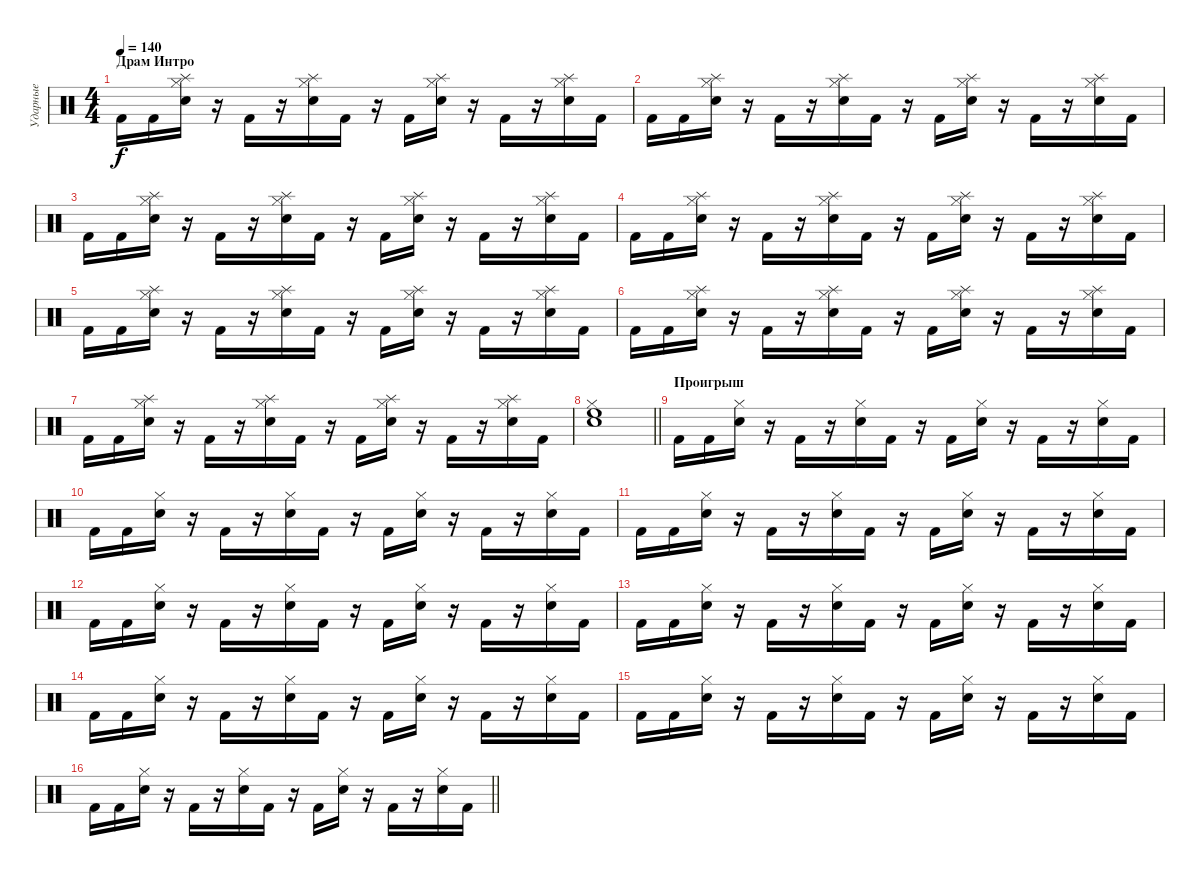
\track ("Ударные" "Ударные") {instrument percussion}
\staff {score}
\articulation defaults
\ts (4 4)
\section ("" "Драм Интро")
\tempo 140
\clef neutral
\ks c "Kick (hit) 2".16{dy f volume 14} "Kick (hit) 2".16
("Snare (hit) 2" "Hi-Hat (closed)" "Splash (hit)").16 r.16 "Kick (hit) 2".16 r.16 ("Snare (hit) 2" "Hi-Hat (closed)" "Splash (hit)").16 "Kick (hit) 2".16 r.16 "Kick (hit) 2".16 ("Snare (hit) 2" "Hi-Hat (closed)" "Splash (hit)").16 r.16 "Kick (hit) 2".16 r.16 ("Snare (hit) 2" "Hi-Hat (closed)" "Splash (hit)").16 "Kick (hit) 2".16 |
"Kick (hit) 2".16{volume 14} "Kick (hit) 2".16 ("Snare (hit) 2" "Hi-Hat (closed)" "Splash (hit)").16 r.16 "Kick (hit) 2".16 r.16 ("Snare (hit) 2" "Hi-Hat (closed)" "Splash (hit)").16 "Kick (hit) 2".16 r.16 "Kick (hit) 2".16 ("Snare (hit) 2" "Hi-Hat (closed)" "Splash (hit)").16 r.16 "Kick (hit) 2".16 r.16 ("Snare (hit) 2" "Hi-Hat (closed)" "Splash (hit)").16 "Kick (hit) 2".16 |
"Kick (hit) 2".16{volume 14} "Kick (hit) 2".16 ("Snare (hit) 2" "Hi-Hat (closed)" "Splash (hit)").16 r.16 "Kick (hit) 2".16 r.16 ("Snare (hit) 2" "Hi-Hat (closed)" "Splash (hit)").16 "Kick (hit) 2".16 r.16 "Kick (hit) 2".16 ("Snare (hit) 2" "Hi-Hat (closed)" "Splash (hit)").16 r.16 "Kick (hit) 2".16 r.16 ("Snare (hit) 2" "Hi-Hat (closed)" "Splash (hit)").16 "Kick (hit) 2".16 |
"Kick (hit) 2".16{volume 14} "Kick (hit) 2".16 ("Snare (hit) 2" "Hi-Hat (closed)" "Splash (hit)").16 r.16 "Kick (hit) 2".16 r.16 ("Snare (hit) 2" "Hi-Hat (closed)" "Splash (hit)").16 "Kick (hit) 2".16 r.16 "Kick (hit) 2".16 ("Snare (hit) 2" "Hi-Hat (closed)" "Splash (hit)").16 r.16 "Kick (hit) 2".16 r.16 ("Snare (hit) 2" "Hi-Hat (closed)" "Splash (hit)").16 "Kick (hit) 2".16 |
"Kick (hit) 2".16{volume 14} "Kick (hit) 2".16 ("Snare (hit) 2" "Hi-Hat (closed)" "Splash (hit)").16 r.16 "Kick (hit) 2".16 r.16 ("Snare (hit) 2" "Hi-Hat (closed)" "Splash (hit)").16 "Kick (hit) 2".16 r.16 "Kick (hit) 2".16 ("Snare (hit) 2" "Hi-Hat (closed)" "Splash (hit)").16 r.16 "Kick (hit) 2".16 r.16 ("Snare (hit) 2" "Hi-Hat (closed)" "Splash (hit)").16 "Kick (hit) 2".16 |
"Kick (hit) 2".16{volume 14} "Kick (hit) 2".16 ("Snare (hit) 2" "Hi-Hat (closed)" "Splash (hit)").16 r.16 "Kick (hit) 2".16 r.16 ("Snare (hit) 2" "Hi-Hat (closed)" "Splash (hit)").16 "Kick (hit) 2".16 r.16 "Kick (hit) 2".16 ("Snare (hit) 2" "Hi-Hat (closed)" "Splash (hit)").16 r.16 "Kick (hit) 2".16 r.16 ("Snare (hit) 2" "Hi-Hat (closed)" "Splash (hit)").16 "Kick (hit) 2".16 |
"Kick (hit) 2".16{volume 14} "Kick (hit) 2".16 ("Snare (hit) 2" "Hi-Hat (closed)" "Splash (hit)").16 r.16 "Kick (hit) 2".16 r.16 ("Snare (hit) 2" "Hi-Hat (closed)" "Splash (hit)").16 "Kick (hit) 2".16 r.16 "Kick (hit) 2".16 ("Snare (hit) 2" "Hi-Hat (closed)" "Splash (hit)").16 r.16 "Kick (hit) 2".16 r.16 ("Snare (hit) 2" "Hi-Hat (closed)" "Splash (hit)").16 "Kick (hit) 2".16 |
\barLineRight lightlight
("High Floor Tom (hit)" "Snare (hit) 2" "Hi-Hat (closed)").1 |
\section ("" "Проигрыш")
"Kick (hit) 2".16{volume 16} "Kick (hit) 2".16 ("Snare (hit) 2" "Hi-Hat (closed)").16 r.16 "Kick (hit) 2".16 r.16 ("Snare (hit) 2" "Hi-Hat (closed)").16 "Kick (hit) 2".16 r.16 "Kick (hit) 2".16 ("Snare (hit) 2" "Hi-Hat (closed)").16 r.16 "Kick (hit) 2".16 r.16 ("Snare (hit) 2" "Hi-Hat (closed)").16 "Kick (hit) 2".16 |
"Kick (hit) 2".16 "Kick (hit) 2".16 ("Snare (hit) 2" "Hi-Hat (closed)").16 r.16 "Kick (hit) 2".16 r.16 ("Snare (hit) 2" "Hi-Hat (closed)").16 "Kick (hit) 2".16 r.16 "Kick (hit) 2".16 ("Snare (hit) 2" "Hi-Hat (closed)").16 r.16 "Kick (hit) 2".16 r.16 ("Snare (hit) 2" "Hi-Hat (closed)").16 "Kick (hit) 2".16 |
"Kick (hit) 2".16 "Kick (hit) 2".16 ("Snare (hit) 2" "Hi-Hat (closed)").16 r.16 "Kick (hit) 2".16 r.16 ("Snare (hit) 2" "Hi-Hat (closed)").16 "Kick (hit) 2".16 r.16 "Kick (hit) 2".16 ("Snare (hit) 2" "Hi-Hat (closed)").16 r.16 "Kick (hit) 2".16 r.16 ("Snare (hit) 2" "Hi-Hat (closed)").16 "Kick (hit) 2".16 |
"Kick (hit) 2".16 "Kick (hit) 2".16 ("Snare (hit) 2" "Hi-Hat (closed)").16 r.16 "Kick (hit) 2".16 r.16 ("Snare (hit) 2" "Hi-Hat (closed)").16 "Kick (hit) 2".16 r.16 "Kick (hit) 2".16 ("Snare (hit) 2" "Hi-Hat (closed)").16 r.16 "Kick (hit) 2".16 r.16 ("Snare (hit) 2" "Hi-Hat (closed)").16 "Kick (hit) 2".16 |
"Kick (hit) 2".16 "Kick (hit) 2".16 ("Snare (hit) 2" "Hi-Hat (closed)").16 r.16 "Kick (hit) 2".16 r.16 ("Snare (hit) 2" "Hi-Hat (closed)").16 "Kick (hit) 2".16 r.16 "Kick (hit) 2".16 ("Snare (hit) 2" "Hi-Hat (closed)").16 r.16 "Kick (hit) 2".16 r.16 ("Snare (hit) 2" "Hi-Hat (closed)").16 "Kick (hit) 2".16 |
"Kick (hit) 2".16 "Kick (hit) 2".16 ("Snare (hit) 2" "Hi-Hat (closed)").16 r.16 "Kick (hit) 2".16 r.16 ("Snare (hit) 2" "Hi-Hat (closed)").16 "Kick (hit) 2".16 r.16 "Kick (hit) 2".16 ("Snare (hit) 2" "Hi-Hat (closed)").16 r.16 "Kick (hit) 2".16 r.16 ("Snare (hit) 2" "Hi-Hat (closed)").16 "Kick (hit) 2".16 |
"Kick (hit) 2".16 "Kick (hit) 2".16 ("Snare (hit) 2" "Hi-Hat (closed)").16 r.16 "Kick (hit) 2".16 r.16 ("Snare (hit) 2" "Hi-Hat (closed)").16 "Kick (hit) 2".16 r.16 "Kick (hit) 2".16 ("Snare (hit) 2" "Hi-Hat (closed)").16 r.16 "Kick (hit) 2".16 r.16 ("Snare (hit) 2" "Hi-Hat (closed)").16 "Kick (hit) 2".16 |
\barLineRight lightlight "Kick (hit) 2".16 "Kick (hit) 2".16
("Snare (hit) 2" "Hi-Hat (closed)").16 r.16 "Kick (hit) 2".16 r.16 ("Snare (hit) 2" "Hi-Hat (closed)").16 "Kick (hit) 2".16 r.16 "Kick (hit) 2".16 ("Snare (hit) 2" "Hi-Hat (closed)").16 r.16 "Kick (hit) 2".16 r.16 ("Snare (hit) 2" "Hi-Hat (closed)").16 "Kick (hit) 2".16
